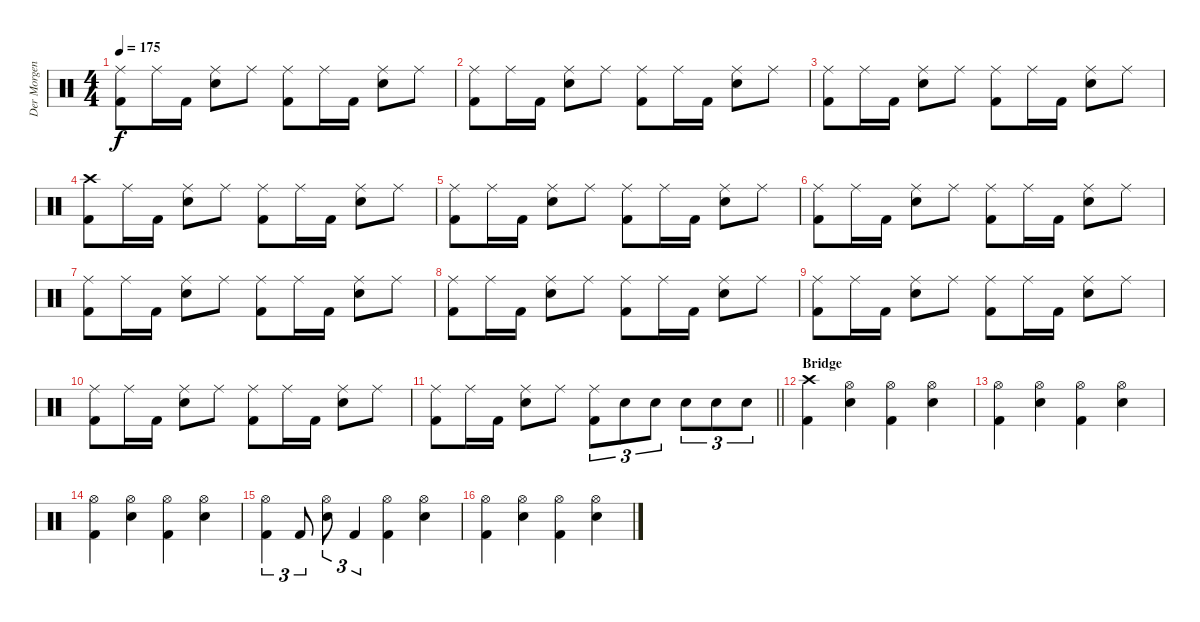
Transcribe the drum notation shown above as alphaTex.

\track ("Der Morgenstern" "Der Morgen") {instrument percussion}
\staff {score}
\articulation defaults
\ts (4 4)
\tempo 175
\clef neutral
\ks c
("Ride (middle)" "Kick (hit) 2").8{dy f} "Ride (middle)".16 "Kick (hit) 2".16 ("Ride (middle)" "Electric Snare (hit)").8 "Ride (middle)".8 ("Ride (middle)" "Kick (hit) 2").8 "Ride (middle)".16 "Kick (hit) 2".16 ("Ride (middle)" "Electric Snare (hit)").8 "Ride (middle)".8 |
("Ride (middle)" "Kick (hit) 2").8 "Ride (middle)".16 "Kick (hit) 2".16 ("Ride (middle)" "Electric Snare (hit)").8 "Ride (middle)".8 ("Ride (middle)" "Kick (hit) 2").8 "Ride (middle)".16 "Kick (hit) 2".16 ("Ride (middle)" "Electric Snare (hit)").8 "Ride (middle)".8 |
("Ride (middle)" "Kick (hit) 2").8 "Ride (middle)".16 "Kick (hit) 2".16 ("Ride (middle)" "Electric Snare (hit)").8 "Ride (middle)".8 ("Ride (middle)" "Kick (hit) 2").8 "Ride (middle)".16 "Kick (hit) 2".16 ("Ride (middle)" "Electric Snare (hit)").8 "Ride (middle)".8 |
("Crash high (hit)" "Kick (hit) 2").8 "Ride (middle)".16 "Kick (hit) 2".16 ("Ride (middle)" "Electric Snare (hit)").8 "Ride (middle)".8 ("Ride (middle)" "Kick (hit) 2").8 "Ride (middle)".16 "Kick (hit) 2".16 ("Ride (middle)" "Electric Snare (hit)").8 "Ride (middle)".8 |
("Ride (middle)" "Kick (hit) 2").8 "Ride (middle)".16 "Kick (hit) 2".16 ("Ride (middle)" "Electric Snare (hit)").8 "Ride (middle)".8 ("Ride (middle)" "Kick (hit) 2").8 "Ride (middle)".16 "Kick (hit) 2".16 ("Ride (middle)" "Electric Snare (hit)").8 "Ride (middle)".8 |
("Ride (middle)" "Kick (hit) 2").8 "Ride (middle)".16 "Kick (hit) 2".16 ("Ride (middle)" "Electric Snare (hit)").8 "Ride (middle)".8 ("Ride (middle)" "Kick (hit) 2").8 "Ride (middle)".16 "Kick (hit) 2".16 ("Ride (middle)" "Electric Snare (hit)").8 "Ride (middle)".8 |
("Ride (middle)" "Kick (hit) 2").8 "Ride (middle)".16 "Kick (hit) 2".16 ("Ride (middle)" "Electric Snare (hit)").8 "Ride (middle)".8 ("Ride (middle)" "Kick (hit) 2").8 "Ride (middle)".16 "Kick (hit) 2".16 ("Ride (middle)" "Electric Snare (hit)").8 "Ride (middle)".8 |
("Ride (middle)" "Kick (hit) 2").8 "Ride (middle)".16 "Kick (hit) 2".16 ("Ride (middle)" "Electric Snare (hit)").8 "Ride (middle)".8 ("Ride (middle)" "Kick (hit) 2").8 "Ride (middle)".16 "Kick (hit) 2".16 ("Ride (middle)" "Electric Snare (hit)").8 "Ride (middle)".8 |
("Ride (middle)" "Kick (hit) 2").8 "Ride (middle)".16 "Kick (hit) 2".16 ("Ride (middle)" "Electric Snare (hit)").8 "Ride (middle)".8 ("Ride (middle)" "Kick (hit) 2").8 "Ride (middle)".16 "Kick (hit) 2".16 ("Ride (middle)" "Electric Snare (hit)").8 "Ride (middle)".8 |
("Ride (middle)" "Kick (hit) 2").8 "Ride (middle)".16 "Kick (hit) 2".16 ("Ride (middle)" "Electric Snare (hit)").8 "Ride (middle)".8 ("Ride (middle)" "Kick (hit) 2").8 "Ride (middle)".16 "Kick (hit) 2".16 ("Ride (middle)" "Electric Snare (hit)").8 "Ride (middle)".8 |
\barLineRight lightlight
("Ride (middle)" "Kick (hit) 2").8 "Ride (middle)".16 "Kick (hit) 2".16 ("Ride (middle)" "Electric Snare (hit)").8 "Ride (middle)".8 ("Ride (middle)" "Kick (hit) 2").8{tu (3 2)} "Electric Snare (hit)".8{tu (3 2)} "Electric Snare (hit)".8{tu (3 2)} "Electric Snare (hit)".8{tu (3 2)} "Electric Snare (hit)".8{tu (3 2)} "Electric Snare (hit)".8{tu (3 2)} |
\section ("" "Bridge")
("Crash high (hit)" "Kick (hit) 2").4 ("Hi-Hat (open)" "Electric Snare (hit)").4 ("Hi-Hat (open)" "Kick (hit) 2").4 ("Hi-Hat (open)" "Electric Snare (hit)").4 |
("Hi-Hat (open)" "Kick (hit) 2").4 ("Hi-Hat (open)" "Electric Snare (hit)").4 ("Hi-Hat (open)" "Kick (hit) 2").4 ("Hi-Hat (open)" "Electric Snare (hit)").4 |
("Hi-Hat (open)" "Kick (hit) 2").4 ("Hi-Hat (open)" "Electric Snare (hit)").4 ("Hi-Hat (open)" "Kick (hit) 2").4 ("Hi-Hat (open)" "Electric Snare (hit)").4 |
("Hi-Hat (open)" "Kick (hit) 2").4{tu (3 2)} "Kick (hit) 2".8{tu (3 2)} ("Hi-Hat (open)" "Electric Snare (hit)").8{tu (3 2)} "Kick (hit) 2".4{tu (3 2)} ("Hi-Hat (open)" "Kick (hit) 2").4 ("Hi-Hat (open)" "Electric Snare (hit)").4 |
("Hi-Hat (open)" "Kick (hit) 2").4 ("Hi-Hat (open)" "Electric Snare (hit)").4 ("Hi-Hat (open)" "Kick (hit) 2").4 ("Hi-Hat (open)" "Electric Snare (hit)").4
